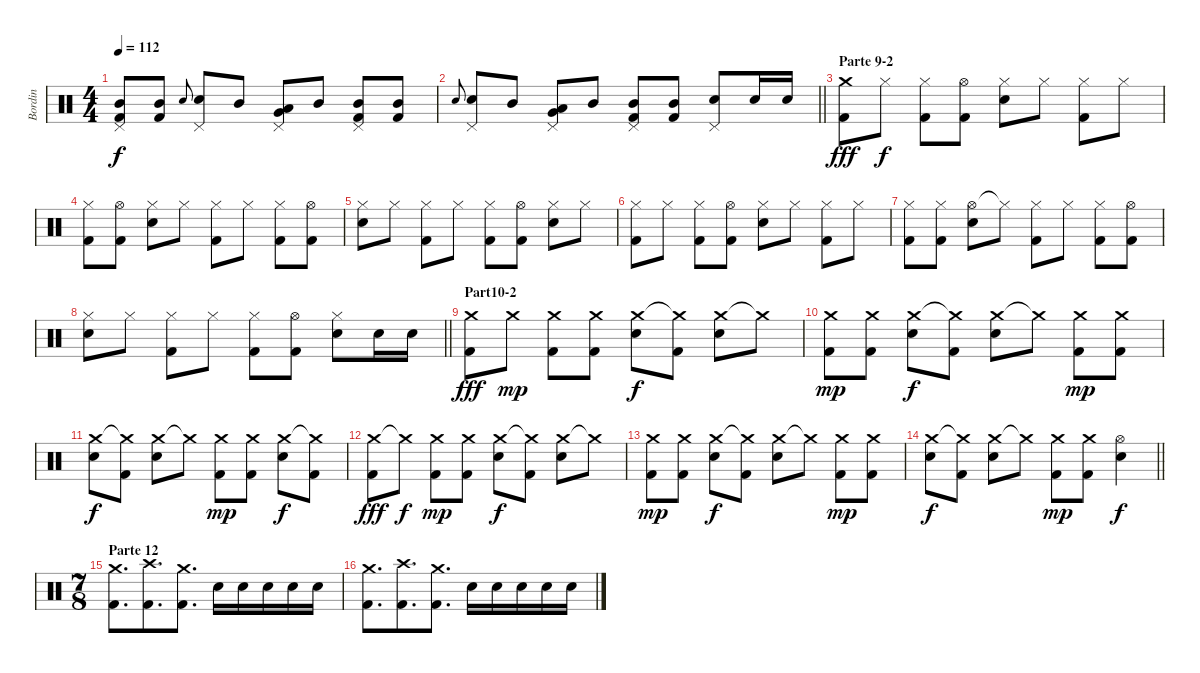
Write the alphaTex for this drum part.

\track ("Bordin" "Bordin") {instrument percussion}
\staff {score}
\articulation defaults
\ts (4 4)
\tempo 112
\clef neutral
\ks c
("Mid Tom (hit)" "Pedal Hi-Hat (hit)" "Kick (hit) 2").8{dy f} ("Mid Tom (hit)" "Kick (hit) 2").8 "Electric Snare (hit)".8{gr onbeat} ("Pedal Hi-Hat (hit)" "Electric Snare (hit)").8 "Mid Tom (hit)".8 ("Low Tom (hit)" "Very Low Tom (hit)" "Pedal Hi-Hat (hit)").8 "Mid Tom (hit)".8 ("Mid Tom (hit)" "Pedal Hi-Hat (hit)" "Kick (hit) 2").8 ("Mid Tom (hit)" "Kick (hit) 2").8 |
\barLineRight lightlight "Electric Snare (hit)".8{gr onbeat}
("Pedal Hi-Hat (hit)" "Electric Snare (hit)").8 "Mid Tom (hit)".8 ("Low Tom (hit)" "Very Low Tom (hit)" "Pedal Hi-Hat (hit)").8 "Mid Tom (hit)".8 ("Mid Tom (hit)" "Pedal Hi-Hat (hit)" "Kick (hit) 2").8 ("Mid Tom (hit)" "Kick (hit) 2").8 ("Pedal Hi-Hat (hit)" "Electric Snare (hit)").8 "Electric Snare (hit)".16 "Electric Snare (hit)".16 |
\section ("" "Parte 9-2")
("Crash medium (hit)" "Kick (hit) 2").8{dy fff} "Hi-Hat (closed)".8{dy f} ("Hi-Hat (closed)" "Kick (hit) 2").8 ("Hi-Hat (open)" "Kick (hit) 2").8 ("Hi-Hat (closed)" "Electric Snare (hit)").8 "Hi-Hat (closed)".8 ("Hi-Hat (closed)" "Kick (hit) 2").8 "Hi-Hat (closed)".8 |
("Hi-Hat (closed)" "Kick (hit) 2").8 ("Hi-Hat (open)" "Kick (hit) 2").8 ("Hi-Hat (closed)" "Electric Snare (hit)").8 "Hi-Hat (closed)".8 ("Hi-Hat (closed)" "Kick (hit) 2").8 "Hi-Hat (closed)".8 ("Hi-Hat (closed)" "Kick (hit) 2").8 ("Hi-Hat (open)" "Kick (hit) 2").8 |
("Hi-Hat (closed)" "Electric Snare (hit)").8 "Hi-Hat (closed)".8 ("Hi-Hat (closed)" "Kick (hit) 2").8 "Hi-Hat (closed)".8 ("Hi-Hat (closed)" "Kick (hit) 2").8 ("Hi-Hat (open)" "Kick (hit) 2").8 ("Hi-Hat (closed)" "Electric Snare (hit)").8 "Hi-Hat (closed)".8 |
("Hi-Hat (closed)" "Kick (hit) 2").8 "Hi-Hat (closed)".8 ("Hi-Hat (closed)" "Kick (hit) 2").8 ("Hi-Hat (open)" "Kick (hit) 2").8 ("Hi-Hat (closed)" "Electric Snare (hit)").8 "Hi-Hat (closed)".8 ("Hi-Hat (closed)" "Kick (hit) 2").8 "Hi-Hat (closed)".8 |
("Hi-Hat (closed)" "Kick (hit) 2").8 ("Hi-Hat (closed)" "Kick (hit) 2").8 ("Hi-Hat (open)" "Electric Snare (hit)").8 "Hi-Hat (closed)"{t}.8 ("Hi-Hat (closed)" "Kick (hit) 2").8 "Hi-Hat (closed)".8 ("Hi-Hat (closed)" "Kick (hit) 2").8 ("Hi-Hat (open)" "Kick (hit) 2").8 |
\barLineRight lightlight
("Hi-Hat (closed)" "Electric Snare (hit)").8 "Hi-Hat (closed)".8 ("Hi-Hat (closed)" "Kick (hit) 2").8 "Hi-Hat (closed)".8 ("Hi-Hat (closed)" "Kick (hit) 2").8 ("Hi-Hat (open)" "Kick (hit) 2").8 ("Hi-Hat (closed)" "Electric Snare (hit)").8 "Electric Snare (hit)".16 "Electric Snare (hit)".16 |
\section ("" "Part10-2")
("Crash medium (hit)" "Kick (hit) 2").8{dy fff} "Crash medium (hit)".8{dy mp} ("Crash medium (hit)" "Kick (hit) 2").8 ("Crash medium (hit)" "Kick (hit) 2").8 ("Crash medium (hit)" "Electric Snare (hit)").8{dy f} ("Crash medium (hit)"{t} "Kick (hit) 2").8 ("Crash medium (hit)" "Electric Snare (hit)").8 "Crash medium (hit)"{t}.8 |
("Crash medium (hit)" "Kick (hit) 2").8{dy mp} ("Crash medium (hit)" "Kick (hit) 2").8 ("Crash medium (hit)" "Electric Snare (hit)").8{dy f} ("Crash medium (hit)"{t} "Kick (hit) 2").8 ("Crash medium (hit)" "Electric Snare (hit)").8 "Crash medium (hit)"{t}.8 ("Crash medium (hit)" "Kick (hit) 2").8{dy mp} ("Crash medium (hit)" "Kick (hit) 2").8 |
("Crash medium (hit)" "Electric Snare (hit)").8{dy f} ("Crash medium (hit)"{t} "Kick (hit) 2").8 ("Crash medium (hit)" "Electric Snare (hit)").8 "Crash medium (hit)"{t}.8 ("Crash medium (hit)" "Kick (hit) 2").8{dy mp} ("Crash medium (hit)" "Kick (hit) 2").8 ("Crash medium (hit)" "Electric Snare (hit)").8{dy f} ("Crash medium (hit)"{t} "Kick (hit) 2").8 |
("Crash medium (hit)" "Kick (hit) 2").8{dy fff} "Crash medium (hit)"{t}.8{dy f} ("Crash medium (hit)" "Kick (hit) 2").8{dy mp} ("Crash medium (hit)" "Kick (hit) 2").8 ("Crash medium (hit)" "Electric Snare (hit)").8{dy f} ("Crash medium (hit)"{t} "Kick (hit) 2").8 ("Crash medium (hit)" "Electric Snare (hit)").8 "Crash medium (hit)"{t}.8 |
("Crash medium (hit)" "Kick (hit) 2").8{dy mp} ("Crash medium (hit)" "Kick (hit) 2").8 ("Crash medium (hit)" "Electric Snare (hit)").8{dy f} ("Crash medium (hit)"{t} "Kick (hit) 2").8 ("Crash medium (hit)" "Electric Snare (hit)").8 "Crash medium (hit)"{t}.8 ("Crash medium (hit)" "Kick (hit) 2").8{dy mp} ("Crash medium (hit)" "Kick (hit) 2").8 |
\barLineRight lightlight
("Crash medium (hit)" "Electric Snare (hit)").8{dy f} ("Crash medium (hit)"{t} "Kick (hit) 2").8 ("Crash medium (hit)" "Electric Snare (hit)").8 "Crash medium (hit)"{t}.8 ("Crash medium (hit)" "Kick (hit) 2").8{dy mp} ("Crash medium (hit)" "Kick (hit) 2").8 ("Hi-Hat (open)" "Electric Snare (hit)").4{dy f} |
\ts (7 8)
\section ("" "Parte 12")
("Crash medium (hit)" "Kick (hit) 2").8{d} ("Crash high (hit)" "Kick (hit) 2").8{d} ("Crash medium (hit)" "Kick (hit) 2").8{d} "Electric Snare (hit)".16 "Electric Snare (hit)".16 "Electric Snare (hit)".16 "Electric Snare (hit)".16 "Electric Snare (hit)".16 |
("Crash medium (hit)" "Kick (hit) 2").8{d} ("Crash high (hit)" "Kick (hit) 2").8{d} ("Crash medium (hit)" "Kick (hit) 2").8{d} "Electric Snare (hit)".16 "Electric Snare (hit)".16 "Electric Snare (hit)".16 "Electric Snare (hit)".16 "Electric Snare (hit)".16
